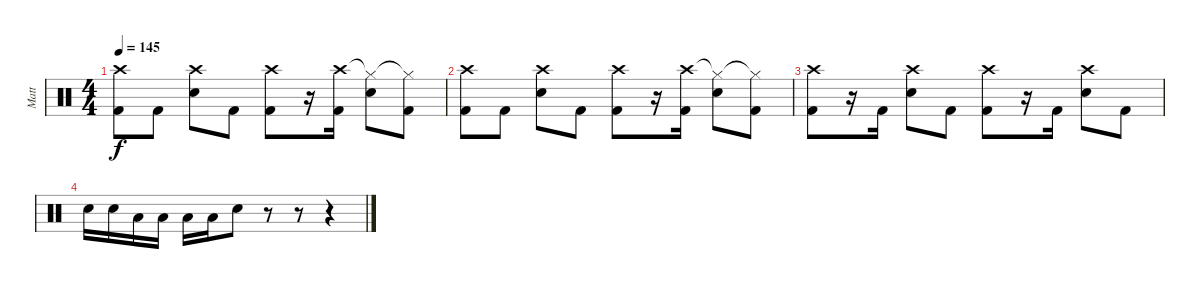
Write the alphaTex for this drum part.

\track ("Matt" "Matt") {instrument percussion}
\staff {score}
\articulation defaults
\ts (4 4)
\tempo 145
\clef neutral
\ks c
("Crash high (hit)" "Kick (hit) 2").8{dy f} "Kick (hit) 2".8 ("Crash high (hit)" "Snare (hit) 2").8 "Kick (hit) 2".8 ("Crash high (hit)" "Kick (hit) 2").8 r.16 ("Crash high (hit)" "Kick (hit) 2").16 ("Hi-Hat (closed)"{t} "Snare (hit) 2").8 ("Hi-Hat (closed)"{t} "Kick (hit) 2").8 |
("Crash high (hit)" "Kick (hit) 2").8 "Kick (hit) 2".8 ("Crash high (hit)" "Snare (hit) 2").8 "Kick (hit) 2".8 ("Crash high (hit)" "Kick (hit) 2").8 r.16 ("Crash high (hit)" "Kick (hit) 2").16 ("Hi-Hat (closed)"{t} "Snare (hit) 2").8 ("Hi-Hat (closed)"{t} "Kick (hit) 2").8 |
("Crash high (hit)" "Kick (hit) 2").8 r.16 "Kick (hit) 2".16 ("Crash high (hit)" "Snare (hit) 2").8 "Kick (hit) 2".8 ("Crash high (hit)" "Kick (hit) 2").8 r.16 "Kick (hit) 2".16 ("Crash high (hit)" "Snare (hit) 2").8 "Kick (hit) 2".8 |
"Snare (hit) 2".16 "Snare (hit) 2".16 "Low Floor Tom (hit)".16 "Low Floor Tom (hit)".16 "Low Tom (hit)".16 "Low Tom (hit)".16 "Snare (hit) 2".8 r.8 r.8 r.4
